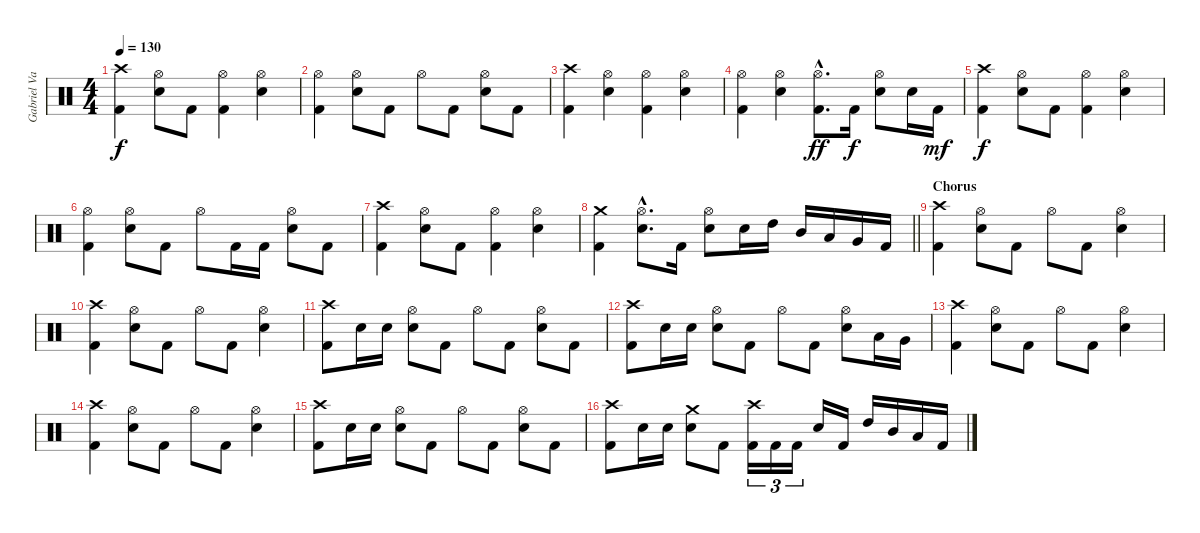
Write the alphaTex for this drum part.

\track ("Gabriel Valerio" "Gabriel Va") {instrument percussion}
\staff {score}
\articulation defaults
\ts (4 4)
\tempo 130
\clef neutral
\ks c
("Crash high (hit)" "Kick (hit) 2").4{dy f} ("Hi-Hat (open)" "Snare (hit) 2").8 "Kick (hit) 2".8 ("Hi-Hat (open)" "Kick (hit) 2").4 ("Hi-Hat (open)" "Snare (hit) 2").4 |
("Hi-Hat (open)" "Kick (hit) 2").4 ("Hi-Hat (open)" "Snare (hit) 2").8 "Kick (hit) 2".8 "Hi-Hat (open)".8 "Kick (hit) 2".8 ("Hi-Hat (open)" "Snare (hit) 2").8 "Kick (hit) 2".8 |
("Crash high (hit)" "Kick (hit) 2").4 ("Hi-Hat (open)" "Snare (hit) 2").4 ("Hi-Hat (open)" "Kick (hit) 2").4 ("Hi-Hat (open)" "Snare (hit) 2").4 |
("Hi-Hat (open)" "Kick (hit) 2").4 ("Hi-Hat (open)" "Snare (hit) 2").4 ("Hi-Hat (open)"{hac} "Kick (hit) 2"{hac}).8{d dy ff} "Kick (hit) 2".16{dy f} ("Hi-Hat (open)" "Snare (hit) 2").8 "Snare (hit) 2".16 "Kick (hit) 2".16{dy mf} |
("Crash high (hit)" "Kick (hit) 2").4{dy f} ("Hi-Hat (open)" "Snare (hit) 2").8 "Kick (hit) 2".8 ("Hi-Hat (open)" "Kick (hit) 2").4 ("Hi-Hat (open)" "Snare (hit) 2").4 |
("Hi-Hat (open)" "Kick (hit) 2").4 ("Hi-Hat (open)" "Snare (hit) 2").8 "Kick (hit) 2".8 "Hi-Hat (open)".8 "Kick (hit) 2".16 "Kick (hit) 2".16 ("Hi-Hat (open)" "Snare (hit) 2").8 "Kick (hit) 2".8 |
("Crash high (hit)" "Kick (hit) 2").4 ("Hi-Hat (open)" "Snare (hit) 2").8 "Kick (hit) 2".8 ("Hi-Hat (open)" "Kick (hit) 2").4 ("Hi-Hat (open)" "Snare (hit) 2").4 |
\barLineRight lightlight
("Crash medium (hit)" "Kick (hit) 2").4 ("Hi-Hat (open)"{hac} "Snare (hit) 2"{hac}).8{d} "Kick (hit) 2".16 ("Hi-Hat (open)" "Snare (hit) 2").8 "Snare (hit) 2".16 "High Tom (hit)".16 "Mid Tom (hit)".16 "Low Tom (hit)".16 "Very Low Tom (hit)".16 "Kick (hit) 2".16 |
\section ("" "Chorus")
("Crash high (hit)" "Kick (hit) 2").4 ("Hi-Hat (open)" "Snare (hit) 2").8 "Kick (hit) 2".8 "Hi-Hat (open)".8 "Kick (hit) 2".8 ("Hi-Hat (open)" "Snare (hit) 2").4 |
("Crash high (hit)" "Kick (hit) 2").4 ("Hi-Hat (open)" "Snare (hit) 2").8 "Kick (hit) 2".8 "Hi-Hat (open)".8 "Kick (hit) 2".8 ("Hi-Hat (open)" "Snare (hit) 2").4 |
("Crash high (hit)" "Kick (hit) 2").8 "Snare (hit) 2".16 "Snare (hit) 2".16 ("Hi-Hat (open)" "Snare (hit) 2").8 "Kick (hit) 2".8 "Hi-Hat (open)".8 "Kick (hit) 2".8 ("Hi-Hat (open)" "Snare (hit) 2").8 "Kick (hit) 2".8 |
("Crash high (hit)" "Kick (hit) 2").8 "Snare (hit) 2".16 "Snare (hit) 2".16 ("Hi-Hat (open)" "Snare (hit) 2").8 "Kick (hit) 2".8 "Hi-Hat (open)".8 "Kick (hit) 2".8 ("Hi-Hat (open)" "Snare (hit) 2").8 "Low Tom (hit)".16 "Very Low Tom (hit)".16 |
("Crash high (hit)" "Kick (hit) 2").4 ("Hi-Hat (open)" "Snare (hit) 2").8 "Kick (hit) 2".8 "Hi-Hat (open)".8 "Kick (hit) 2".8 ("Hi-Hat (open)" "Snare (hit) 2").4 |
("Crash high (hit)" "Kick (hit) 2").4 ("Hi-Hat (open)" "Snare (hit) 2").8 "Kick (hit) 2".8 "Hi-Hat (open)".8 "Kick (hit) 2".8 ("Hi-Hat (open)" "Snare (hit) 2").4 |
("Crash high (hit)" "Kick (hit) 2").8 "Snare (hit) 2".16 "Snare (hit) 2".16 ("Hi-Hat (open)" "Snare (hit) 2").8 "Kick (hit) 2".8 "Hi-Hat (open)".8 "Kick (hit) 2".8 ("Hi-Hat (open)" "Snare (hit) 2").8 "Kick (hit) 2".8 |
("Crash high (hit)" "Kick (hit) 2").8 "Snare (hit) 2".16 "Snare (hit) 2".16 ("Crash medium (hit)" "Snare (hit) 2").8 "Kick (hit) 2".8 ("Crash high (hit)" "Kick (hit) 2").16{tu (3 2)} "Kick (hit) 2".16{tu (3 2)} "Kick (hit) 2".16{tu (3 2)} "Snare (hit) 2".16 "Kick (hit) 2".16 "High Tom (hit)".16 "Mid Tom (hit)".16 "Low Tom (hit)".16 "Kick (hit) 2".16
